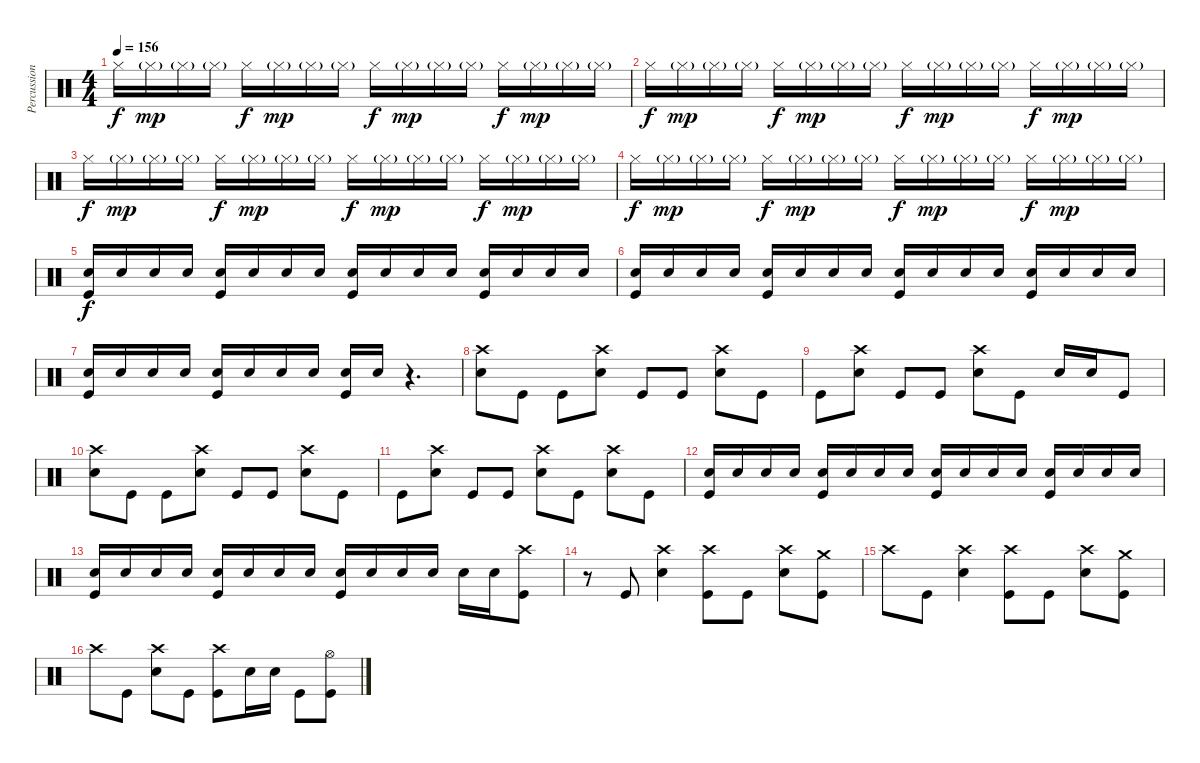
\track ("Percussion" "Percussion") {instrument percussion}
\staff {score}
\articulation defaults
\ts (4 4)
\tempo 156
\clef neutral
\ks c "Hi-Hat (closed)".16{dy f} "Hi-Hat (closed)"{g}.16{dy mp} "Hi-Hat (closed)"{g}.16 "Hi-Hat (closed)"{g}.16 "Hi-Hat (closed)".16{dy f} "Hi-Hat (closed)"{g}.16{dy mp} "Hi-Hat (closed)"{g}.16 "Hi-Hat (closed)"{g}.16 "Hi-Hat (closed)".16{dy f} "Hi-Hat (closed)"{g}.16{dy mp} "Hi-Hat (closed)"{g}.16 "Hi-Hat (closed)"{g}.16 "Hi-Hat (closed)".16{dy f} "Hi-Hat (closed)"{g}.16{dy mp} "Hi-Hat (closed)"{g}.16 "Hi-Hat (closed)"{g}.16
|
"Hi-Hat (closed)".16{dy f} "Hi-Hat (closed)"{g}.16{dy mp} "Hi-Hat (closed)"{g}.16 "Hi-Hat (closed)"{g}.16 "Hi-Hat (closed)".16{dy f} "Hi-Hat (closed)"{g}.16{dy mp} "Hi-Hat (closed)"{g}.16 "Hi-Hat (closed)"{g}.16 "Hi-Hat (closed)".16{dy f} "Hi-Hat (closed)"{g}.16{dy mp} "Hi-Hat (closed)"{g}.16 "Hi-Hat (closed)"{g}.16 "Hi-Hat (closed)".16{dy f} "Hi-Hat (closed)"{g}.16{dy mp} "Hi-Hat (closed)"{g}.16 "Hi-Hat (closed)"{g}.16 |
"Hi-Hat (closed)".16{dy f} "Hi-Hat (closed)"{g}.16{dy mp} "Hi-Hat (closed)"{g}.16 "Hi-Hat (closed)"{g}.16 "Hi-Hat (closed)".16{dy f} "Hi-Hat (closed)"{g}.16{dy mp} "Hi-Hat (closed)"{g}.16 "Hi-Hat (closed)"{g}.16 "Hi-Hat (closed)".16{dy f} "Hi-Hat (closed)"{g}.16{dy mp} "Hi-Hat (closed)"{g}.16 "Hi-Hat (closed)"{g}.16 "Hi-Hat (closed)".16{dy f} "Hi-Hat (closed)"{g}.16{dy mp} "Hi-Hat (closed)"{g}.16 "Hi-Hat (closed)"{g}.16 |
"Hi-Hat (closed)".16{dy f} "Hi-Hat (closed)"{g}.16{dy mp} "Hi-Hat (closed)"{g}.16 "Hi-Hat (closed)"{g}.16 "Hi-Hat (closed)".16{dy f} "Hi-Hat (closed)"{g}.16{dy mp} "Hi-Hat (closed)"{g}.16 "Hi-Hat (closed)"{g}.16 "Hi-Hat (closed)".16{dy f} "Hi-Hat (closed)"{g}.16{dy mp} "Hi-Hat (closed)"{g}.16 "Hi-Hat (closed)"{g}.16 "Hi-Hat (closed)".16{dy f} "Hi-Hat (closed)"{g}.16{dy mp} "Hi-Hat (closed)"{g}.16 "Hi-Hat (closed)"{g}.16 |
("Snare (hit) 2" "Kick (hit)").16{dy f} "Snare (hit) 2".16 "Snare (hit) 2".16 "Snare (hit) 2".16 ("Snare (hit) 2" "Kick (hit)").16 "Snare (hit) 2".16 "Snare (hit) 2".16 "Snare (hit) 2".16 ("Snare (hit) 2" "Kick (hit)").16 "Snare (hit) 2".16 "Snare (hit) 2".16 "Snare (hit) 2".16 ("Snare (hit) 2" "Kick (hit)").16 "Snare (hit) 2".16 "Snare (hit) 2".16 "Snare (hit) 2".16 |
("Snare (hit) 2" "Kick (hit)").16 "Snare (hit) 2".16 "Snare (hit) 2".16 "Snare (hit) 2".16 ("Snare (hit) 2" "Kick (hit)").16 "Snare (hit) 2".16 "Snare (hit) 2".16 "Snare (hit) 2".16 ("Snare (hit) 2" "Kick (hit)").16 "Snare (hit) 2".16 "Snare (hit) 2".16 "Snare (hit) 2".16 ("Snare (hit) 2" "Kick (hit)").16 "Snare (hit) 2".16 "Snare (hit) 2".16 "Snare (hit) 2".16 |
("Snare (hit) 2" "Kick (hit)").16 "Snare (hit) 2".16 "Snare (hit) 2".16 "Snare (hit) 2".16 ("Snare (hit) 2" "Kick (hit)").16 "Snare (hit) 2".16 "Snare (hit) 2".16 "Snare (hit) 2".16 ("Snare (hit) 2" "Kick (hit)").16 "Snare (hit) 2".16 r.4{d} |
("Crash high (hit)" "Snare (hit) 2").8 "Kick (hit)".8 "Kick (hit)".8 ("Crash high (hit)" "Snare (hit) 2").8 "Kick (hit)".8 "Kick (hit)".8 ("Crash high (hit)" "Snare (hit) 2").8 "Kick (hit)".8 |
"Kick (hit)".8 ("Crash high (hit)" "Snare (hit) 2").8 "Kick (hit)".8 "Kick (hit)".8 ("Crash high (hit)" "Snare (hit) 2").8 "Kick (hit)".8 "Snare (hit) 2".16 "Snare (hit) 2".16 "Kick (hit)".8 |
("Crash high (hit)" "Snare (hit) 2").8 "Kick (hit)".8 "Kick (hit)".8 ("Crash high (hit)" "Snare (hit) 2").8 "Kick (hit)".8 "Kick (hit)".8 ("Crash high (hit)" "Snare (hit) 2").8 "Kick (hit)".8 |
"Kick (hit)".8 ("Crash high (hit)" "Snare (hit) 2").8 "Kick (hit)".8 "Kick (hit)".8 ("Crash high (hit)" "Snare (hit) 2").8 "Kick (hit)".8 ("Crash high (hit)" "Snare (hit) 2").8 "Kick (hit)".8 |
("Snare (hit) 2" "Kick (hit)").16 "Snare (hit) 2".16 "Snare (hit) 2".16 "Snare (hit) 2".16 ("Snare (hit) 2" "Kick (hit)").16 "Snare (hit) 2".16 "Snare (hit) 2".16 "Snare (hit) 2".16 ("Snare (hit) 2" "Kick (hit)").16 "Snare (hit) 2".16 "Snare (hit) 2".16 "Snare (hit) 2".16 ("Snare (hit) 2" "Kick (hit)").16 "Snare (hit) 2".16 "Snare (hit) 2".16 "Snare (hit) 2".16 |
("Snare (hit) 2" "Kick (hit)").16 "Snare (hit) 2".16 "Snare (hit) 2".16 "Snare (hit) 2".16 ("Snare (hit) 2" "Kick (hit)").16 "Snare (hit) 2".16 "Snare (hit) 2".16 "Snare (hit) 2".16 ("Snare (hit) 2" "Kick (hit)").16 "Snare (hit) 2".16 "Snare (hit) 2".16 "Snare (hit) 2".16 "Snare (hit) 2".16 "Snare (hit) 2".16 ("Crash high (hit)" "Kick (hit)").8 |
r.8 "Kick (hit)".8 ("Crash high (hit)" "Snare (hit) 2").4 ("Crash high (hit)" "Kick (hit)").8 "Kick (hit)".8 ("Crash high (hit)" "Snare (hit) 2").8 ("Crash medium (hit)" "Kick (hit)").8 |
"Crash high (hit)".8 "Kick (hit)".8 ("Crash high (hit)" "Snare (hit) 2").4 ("Crash high (hit)" "Kick (hit)").8 "Kick (hit)".8 ("Crash high (hit)" "Snare (hit) 2").8 ("Crash medium (hit)" "Kick (hit)").8 |
"Crash high (hit)".8 "Kick (hit)".8 ("Crash high (hit)" "Snare (hit) 2").8 "Kick (hit)".8 ("Crash high (hit)" "Kick (hit)").8 "Snare (hit) 2".16 "Snare (hit) 2".16 "Kick (hit)".8 ("Hi-Hat (open)" "Kick (hit)").8
